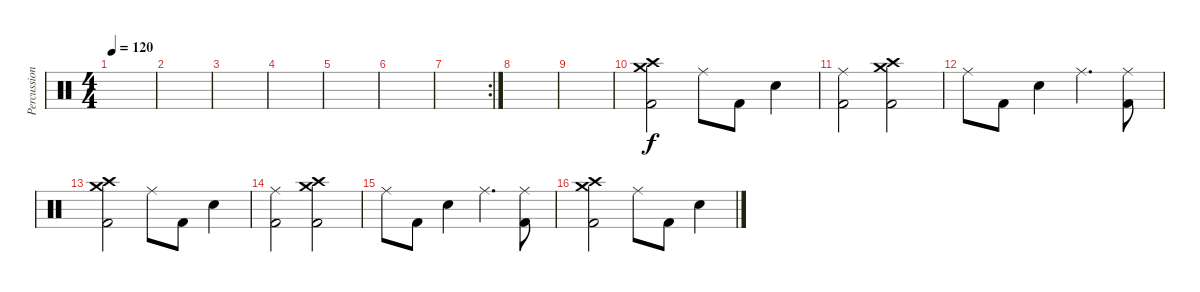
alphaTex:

\track ("Percussion" "Percussion") {instrument percussion}
\staff {score}
\articulation defaults
\ts (4 4)
\tempo 120
\clef neutral
\ks c
|
|
|
|
|
|
\rc 2
|
|
|
("Crash high (hit)" "Crash medium (hit)" "Kick (hit) 2").2 "Ride (middle)".8 "Kick (hit) 2".8 "Snare (hit) 2".4 |
("Kick (hit) 2" "Ride (middle)").2 ("Crash high (hit)" "Crash medium (hit)" "Kick (hit) 2").2 |
"Ride (middle)".8 "Kick (hit) 2".8 "Snare (hit) 2".4 "Ride (middle)".4{d} ("Kick (hit) 2" "Ride (middle)").8 |
("Crash high (hit)" "Crash medium (hit)" "Kick (hit) 2").2 "Ride (middle)".8 "Kick (hit) 2".8 "Snare (hit) 2".4 |
("Kick (hit) 2" "Ride (middle)").2 ("Crash high (hit)" "Crash medium (hit)" "Kick (hit) 2").2 |
"Ride (middle)".8 "Kick (hit) 2".8 "Snare (hit) 2".4 "Ride (middle)".4{d} ("Kick (hit) 2" "Ride (middle)").8 |
("Crash high (hit)" "Crash medium (hit)" "Kick (hit) 2").2 "Ride (middle)".8 "Kick (hit) 2".8 "Snare (hit) 2".4
